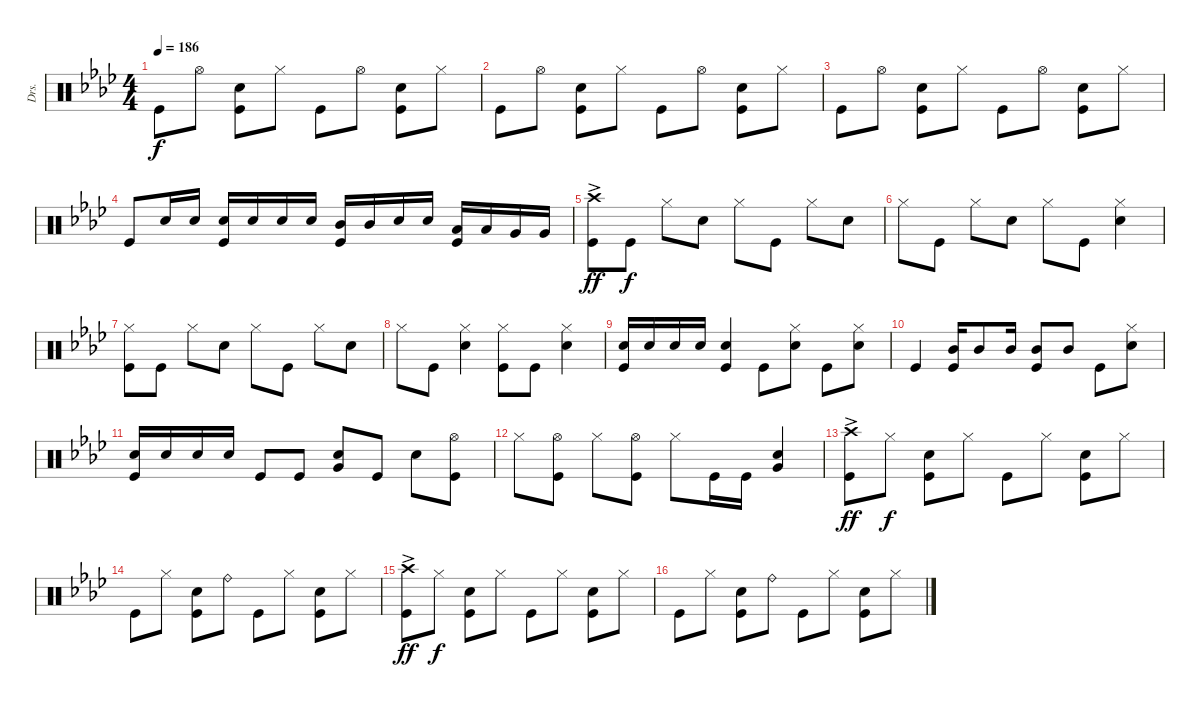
\track ("Drs." "Drs.") {instrument percussion}
\staff {score}
\articulation defaults
\ts (4 4)
\tempo 186
\clef neutral
\ks ab "Kick (hit)".8{dy f} "Hi-Hat (open)".8
("Snare (hit) 2" "Kick (hit)").8 "Hi-Hat (closed)".8 "Kick (hit)".8 "Hi-Hat (open)".8 ("Snare (hit) 2" "Kick (hit)").8 "Hi-Hat (closed)".8 |
"Kick (hit)".8 "Hi-Hat (open)".8 ("Snare (hit) 2" "Kick (hit)").8 "Hi-Hat (closed)".8 "Kick (hit)".8 "Hi-Hat (open)".8 ("Snare (hit) 2" "Kick (hit)").8 "Hi-Hat (closed)".8 |
"Kick (hit)".8 "Hi-Hat (open)".8 ("Snare (hit) 2" "Kick (hit)").8 "Hi-Hat (closed)".8 "Kick (hit)".8 "Hi-Hat (open)".8 ("Snare (hit) 2" "Kick (hit)").8 "Hi-Hat (closed)".8 |
"Kick (hit)".8 "Snare (hit) 2".16 "Snare (hit) 2".16 ("Snare (hit) 2" "Kick (hit)").16 "Snare (hit) 2".16 "Snare (hit) 2".16 "Snare (hit) 2".16 ("Mid Tom (hit)" "Kick (hit)").16 "Mid Tom (hit)".16 "Snare (hit) 2".16 "Snare (hit) 2".16 ("Low Tom (hit)" "Kick (hit)").16 "Low Tom (hit)".16 "Very Low Tom (hit)".16 "Very Low Tom (hit)".16 |
("Crash high (hit)"{ac} "Kick (hit)").8{dy ff} "Kick (hit)".8{dy f} "Hi-Hat (closed)".8 "Snare (hit) 2".8 "Hi-Hat (closed)".8 "Kick (hit)".8 "Hi-Hat (closed)".8 "Snare (hit) 2".8 |
"Hi-Hat (closed)".8 "Kick (hit)".8 "Hi-Hat (closed)".8 "Snare (hit) 2".8 "Hi-Hat (closed)".8 "Kick (hit)".8 ("Hi-Hat (closed)" "Snare (hit) 2").4 |
("Hi-Hat (closed)" "Kick (hit)").8 "Kick (hit)".8 "Hi-Hat (closed)".8 "Snare (hit) 2".8 "Hi-Hat (closed)".8 "Kick (hit)".8 "Hi-Hat (closed)".8 "Snare (hit) 2".8 |
"Hi-Hat (closed)".8 "Kick (hit)".8 ("Hi-Hat (closed)" "Snare (hit) 2").4 ("Hi-Hat (closed)" "Kick (hit)").8 "Kick (hit)".8 ("Hi-Hat (closed)" "Snare (hit) 2").4 |
("Snare (hit) 2" "Kick (hit)").16 "Snare (hit) 2".16 "Snare (hit) 2".16 "Snare (hit) 2".16 ("Snare (hit) 2" "Kick (hit)").4 "Kick (hit)".8 ("Hi-Hat (closed)" "Snare (hit) 2").8 "Kick (hit)".8 ("Hi-Hat (closed)" "Snare (hit) 2").8 |
"Kick (hit)".4 ("Mid Tom (hit)" "Kick (hit)").16 "Mid Tom (hit)".8 "Mid Tom (hit)".16 ("Mid Tom (hit)" "Kick (hit)").8 "Mid Tom (hit)".8 "Kick (hit)".8 ("Hi-Hat (closed)" "Snare (hit) 2").8 |
("Snare (hit) 2" "Kick (hit)").16 "Snare (hit) 2".16 "Snare (hit) 2".16 "Snare (hit) 2".16 "Kick (hit)".8 "Kick (hit)".8 ("Snare (hit) 2" "Very Low Tom (hit)").8 "Kick (hit)".8 "Snare (hit) 2".8 ("Hi-Hat (open)" "Kick (hit)").8 |
"Hi-Hat (closed)".8 ("Hi-Hat (open)" "Kick (hit)").8 "Hi-Hat (closed)".8 ("Hi-Hat (open)" "Kick (hit)").8 "Hi-Hat (closed)".8 "Kick (hit)".16 "Kick (hit)".16 ("Snare (hit) 2" "Very Low Tom (hit)").4 |
("Crash high (hit)"{ac} "Kick (hit)").8{dy ff} "Hi-Hat (closed)".8{dy f} ("Snare (hit) 2" "Kick (hit)").8 "Hi-Hat (closed)".8 "Kick (hit)".8 "Hi-Hat (closed)".8 ("Snare (hit) 2" "Kick (hit)").8 "Hi-Hat (closed)".8 |
"Kick (hit)".8 "Hi-Hat (closed)".8 ("Snare (hit) 2" "Kick (hit)").8 "Ride (bell)".8 "Kick (hit)".8 "Hi-Hat (closed)".8 ("Snare (hit) 2" "Kick (hit)").8 "Hi-Hat (closed)".8 |
("Crash high (hit)"{ac} "Kick (hit)").8{dy ff} "Hi-Hat (closed)".8{dy f} ("Snare (hit) 2" "Kick (hit)").8 "Hi-Hat (closed)".8 "Kick (hit)".8 "Hi-Hat (closed)".8 ("Snare (hit) 2" "Kick (hit)").8 "Hi-Hat (closed)".8 |
"Kick (hit)".8 "Hi-Hat (closed)".8 ("Snare (hit) 2" "Kick (hit)").8 "Ride (bell)".8 "Kick (hit)".8 "Hi-Hat (closed)".8 ("Snare (hit) 2" "Kick (hit)").8 "Hi-Hat (closed)".8
